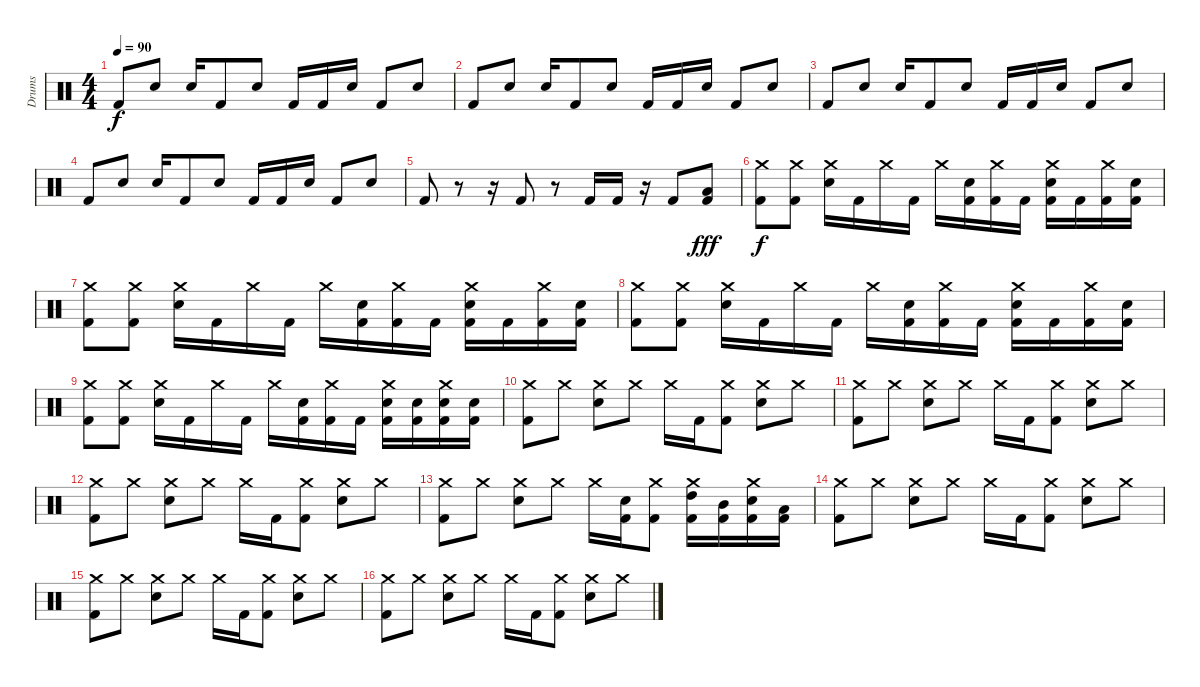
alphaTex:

\track ("Drums" "Drums") {instrument percussion}
\staff {score}
\articulation defaults
\ts (4 4)
\tempo 90
\clef neutral
\ks c "Kick (hit) 2".8{dy f} "Snare (hit) 2".8 "Snare (hit) 2".16 "Kick (hit) 2".8 "Snare (hit) 2".8 "Kick (hit) 2".16 "Kick (hit) 2".16 "Snare (hit) 2".16 "Kick (hit) 2".8 "Snare (hit) 2".8
|
"Kick (hit) 2".8 "Snare (hit) 2".8 "Snare (hit) 2".16 "Kick (hit) 2".8 "Snare (hit) 2".8 "Kick (hit) 2".16 "Kick (hit) 2".16 "Snare (hit) 2".16 "Kick (hit) 2".8 "Snare (hit) 2".8 |
"Kick (hit) 2".8 "Snare (hit) 2".8 "Snare (hit) 2".16 "Kick (hit) 2".8 "Snare (hit) 2".8 "Kick (hit) 2".16 "Kick (hit) 2".16 "Snare (hit) 2".16 "Kick (hit) 2".8 "Snare (hit) 2".8 |
"Kick (hit) 2".8 "Snare (hit) 2".8 "Snare (hit) 2".16 "Kick (hit) 2".8 "Snare (hit) 2".8 "Kick (hit) 2".16 "Kick (hit) 2".16 "Snare (hit) 2".16 "Kick (hit) 2".8 "Snare (hit) 2".8 |
"Kick (hit) 2".8 r.8 r.16 "Kick (hit) 2".8 r.8 "Kick (hit) 2".16 "Kick (hit) 2".16 r.16 "Kick (hit) 2".8 ("Low Tom (hit)" "Kick (hit) 2").8{dy fff} |
("Crash medium (hit)" "Kick (hit) 2").8{dy f} ("Crash medium (hit)" "Kick (hit) 2").8 ("Crash medium (hit)" "Snare (hit) 2").16 "Kick (hit) 2".16 "Crash medium (hit)".16 "Kick (hit) 2".16 "Crash medium (hit)".16 ("Snare (hit) 2" "Kick (hit) 2").16 ("Crash medium (hit)" "Kick (hit) 2").16 "Kick (hit) 2".16 ("Crash medium (hit)" "Snare (hit) 2" "Kick (hit) 2").16 "Kick (hit) 2".16 ("Crash medium (hit)" "Kick (hit) 2").16 ("Snare (hit) 2" "Kick (hit) 2").16 |
("Crash medium (hit)" "Kick (hit) 2").8 ("Crash medium (hit)" "Kick (hit) 2").8 ("Crash medium (hit)" "Snare (hit) 2").16 "Kick (hit) 2".16 "Crash medium (hit)".16 "Kick (hit) 2".16 "Crash medium (hit)".16 ("Snare (hit) 2" "Kick (hit) 2").16 ("Crash medium (hit)" "Kick (hit) 2").16 "Kick (hit) 2".16 ("Crash medium (hit)" "Snare (hit) 2" "Kick (hit) 2").16 "Kick (hit) 2".16 ("Crash medium (hit)" "Kick (hit) 2").16 ("Snare (hit) 2" "Kick (hit) 2").16 |
("Crash medium (hit)" "Kick (hit) 2").8 ("Crash medium (hit)" "Kick (hit) 2").8 ("Crash medium (hit)" "Snare (hit) 2").16 "Kick (hit) 2".16 "Crash medium (hit)".16 "Kick (hit) 2".16 "Crash medium (hit)".16 ("Snare (hit) 2" "Kick (hit) 2").16 ("Crash medium (hit)" "Kick (hit) 2").16 "Kick (hit) 2".16 ("Crash medium (hit)" "Snare (hit) 2" "Kick (hit) 2").16 "Kick (hit) 2".16 ("Crash medium (hit)" "Kick (hit) 2").16 ("Snare (hit) 2" "Kick (hit) 2").16 |
("Crash medium (hit)" "Kick (hit) 2").8 ("Crash medium (hit)" "Kick (hit) 2").8 ("Crash medium (hit)" "Snare (hit) 2").16 "Kick (hit) 2".16 "Crash medium (hit)".16 "Kick (hit) 2".16 "Crash medium (hit)".16 ("Snare (hit) 2" "Kick (hit) 2").16 ("Crash medium (hit)" "Kick (hit) 2").16 "Kick (hit) 2".16 ("Crash medium (hit)" "Snare (hit) 2" "Kick (hit) 2").16 ("Snare (hit) 2" "Kick (hit) 2").16 ("Crash medium (hit)" "Snare (hit) 2" "Kick (hit) 2").16 ("Snare (hit) 2" "Kick (hit) 2").16 |
("Crash medium (hit)" "Kick (hit) 2").8 "Crash medium (hit)".8 ("Crash medium (hit)" "Snare (hit) 2").8 "Crash medium (hit)".8 "Crash medium (hit)".16 "Kick (hit) 2".16 ("Crash medium (hit)" "Kick (hit) 2").8 ("Crash medium (hit)" "Snare (hit) 2").8 "Crash medium (hit)".8 |
("Crash medium (hit)" "Kick (hit) 2").8 "Crash medium (hit)".8 ("Crash medium (hit)" "Snare (hit) 2").8 "Crash medium (hit)".8 "Crash medium (hit)".16 "Kick (hit) 2".16 ("Crash medium (hit)" "Kick (hit) 2").8 ("Crash medium (hit)" "Snare (hit) 2").8 "Crash medium (hit)".8 |
("Crash medium (hit)" "Kick (hit) 2").8 "Crash medium (hit)".8 ("Crash medium (hit)" "Snare (hit) 2").8 "Crash medium (hit)".8 "Crash medium (hit)".16 "Kick (hit) 2".16 ("Crash medium (hit)" "Kick (hit) 2").8 ("Crash medium (hit)" "Snare (hit) 2").8 "Crash medium (hit)".8 |
("Crash medium (hit)" "Kick (hit) 2").8 "Crash medium (hit)".8 ("Crash medium (hit)" "Snare (hit) 2").8 "Crash medium (hit)".8 "Crash medium (hit)".16 ("Snare (hit) 2" "Kick (hit) 2").16 ("Crash medium (hit)" "Kick (hit) 2").8 ("Crash medium (hit)" "High Tom (hit)" "Kick (hit) 2").16 ("Mid Tom (hit)" "Kick (hit) 2").16 ("Crash medium (hit)" "Snare (hit) 2" "Kick (hit) 2").16 ("Low Tom (hit)" "Kick (hit) 2").16 |
("Crash medium (hit)" "Kick (hit) 2").8 "Crash medium (hit)".8 ("Crash medium (hit)" "Snare (hit) 2").8 "Crash medium (hit)".8 "Crash medium (hit)".16 "Kick (hit) 2".16 ("Crash medium (hit)" "Kick (hit) 2").8 ("Crash medium (hit)" "Snare (hit) 2").8 "Crash medium (hit)".8 |
("Crash medium (hit)" "Kick (hit) 2").8 "Crash medium (hit)".8 ("Crash medium (hit)" "Snare (hit) 2").8 "Crash medium (hit)".8 "Crash medium (hit)".16 "Kick (hit) 2".16 ("Crash medium (hit)" "Kick (hit) 2").8 ("Crash medium (hit)" "Snare (hit) 2").8 "Crash medium (hit)".8 |
("Crash medium (hit)" "Kick (hit) 2").8 "Crash medium (hit)".8 ("Crash medium (hit)" "Snare (hit) 2").8 "Crash medium (hit)".8 "Crash medium (hit)".16 "Kick (hit) 2".16 ("Crash medium (hit)" "Kick (hit) 2").8 ("Crash medium (hit)" "Snare (hit) 2").8 "Crash medium (hit)".8
